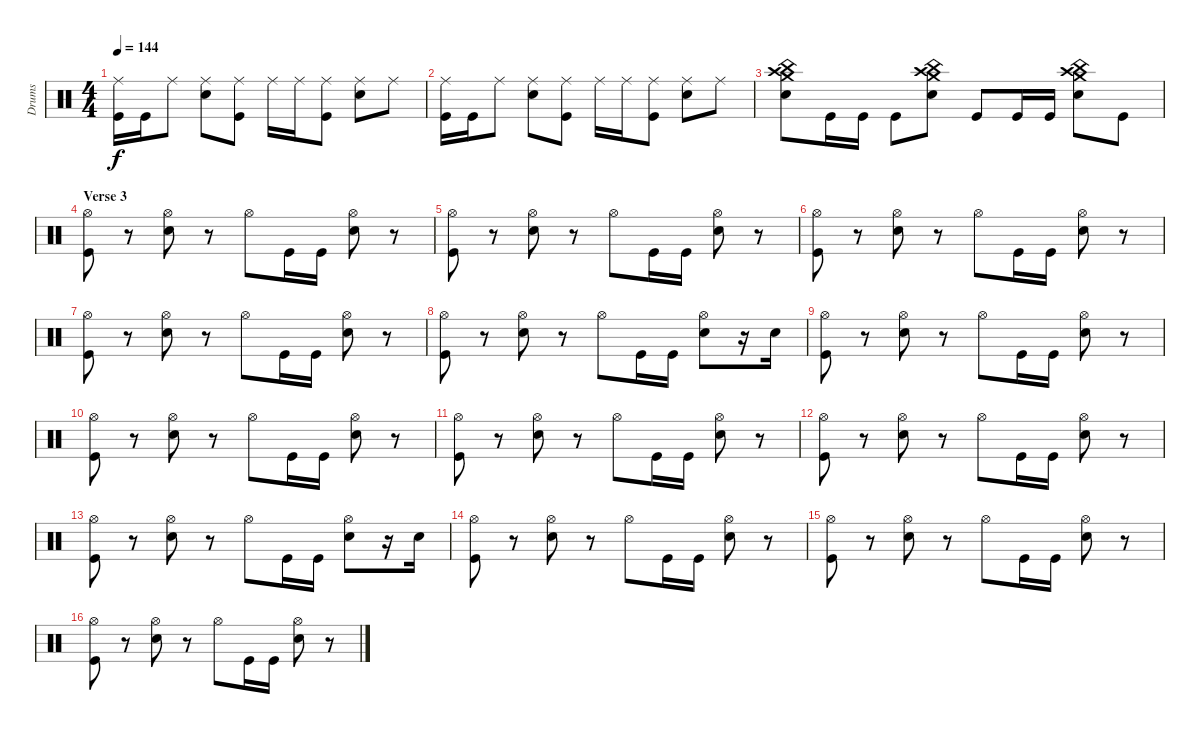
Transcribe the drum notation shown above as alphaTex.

\track ("Drums" "Drums") {instrument percussion}
\staff {score}
\articulation defaults
\ts (4 4)
\tempo 144
\clef neutral
\ks c
("Ride (middle)" "Kick (hit)").16{dy f} "Kick (hit)".16 "Ride (middle)".8 ("Ride (middle)" "Snare (hit) 2").8 ("Ride (middle)" "Kick (hit)").8 "Ride (middle)".16 "Ride (middle)".16 ("Ride (middle)" "Kick (hit)").8 ("Ride (middle)" "Snare (hit) 2").8 "Ride (middle)".8 |
("Ride (middle)" "Kick (hit)").16 "Kick (hit)".16 "Ride (middle)".8 ("Ride (middle)" "Snare (hit) 2").8 ("Ride (middle)" "Kick (hit)").8 "Ride (middle)".16 "Ride (middle)".16 ("Ride (middle)" "Kick (hit)").8 ("Ride (middle)" "Snare (hit) 2").8 "Ride (middle)".8 |
("China (hit)" "Crash medium (hit)" "Crash high (hit)" "Snare (hit) 2").8 "Kick (hit)".16 "Kick (hit)".16 "Kick (hit)".8 ("China (hit)" "Crash medium (hit)" "Crash high (hit)" "Snare (hit) 2").8 "Kick (hit)".8 "Kick (hit)".16 "Kick (hit)".16 ("China (hit)" "Crash medium (hit)" "Crash high (hit)" "Snare (hit) 2").8 "Kick (hit)".8 |
\section ("" "Verse 3")
("Hi-Hat (open)" "Kick (hit)").8 r.8 ("Hi-Hat (open)" "Snare (hit) 2").8 r.8 "Hi-Hat (open)".8 "Kick (hit)".16 "Kick (hit)".16 ("Hi-Hat (open)" "Snare (hit) 2").8 r.8 |
("Hi-Hat (open)" "Kick (hit)").8 r.8 ("Hi-Hat (open)" "Snare (hit) 2").8 r.8 "Hi-Hat (open)".8 "Kick (hit)".16 "Kick (hit)".16 ("Hi-Hat (open)" "Snare (hit) 2").8 r.8 |
("Hi-Hat (open)" "Kick (hit)").8 r.8 ("Hi-Hat (open)" "Snare (hit) 2").8 r.8 "Hi-Hat (open)".8 "Kick (hit)".16 "Kick (hit)".16 ("Hi-Hat (open)" "Snare (hit) 2").8 r.8 |
("Hi-Hat (open)" "Kick (hit)").8 r.8 ("Hi-Hat (open)" "Snare (hit) 2").8 r.8 "Hi-Hat (open)".8 "Kick (hit)".16 "Kick (hit)".16 ("Hi-Hat (open)" "Snare (hit) 2").8 r.8 |
("Hi-Hat (open)" "Kick (hit)").8 r.8 ("Hi-Hat (open)" "Snare (hit) 2").8 r.8 "Hi-Hat (open)".8 "Kick (hit)".16 "Kick (hit)".16 ("Hi-Hat (open)" "Snare (hit) 2").8 r.16 "Snare (hit) 2".16 |
("Hi-Hat (open)" "Kick (hit)").8 r.8 ("Hi-Hat (open)" "Snare (hit) 2").8 r.8 "Hi-Hat (open)".8 "Kick (hit)".16 "Kick (hit)".16 ("Hi-Hat (open)" "Snare (hit) 2").8 r.8 |
("Hi-Hat (open)" "Kick (hit)").8 r.8 ("Hi-Hat (open)" "Snare (hit) 2").8 r.8 "Hi-Hat (open)".8 "Kick (hit)".16 "Kick (hit)".16 ("Hi-Hat (open)" "Snare (hit) 2").8 r.8 |
("Hi-Hat (open)" "Kick (hit)").8 r.8 ("Hi-Hat (open)" "Snare (hit) 2").8 r.8 "Hi-Hat (open)".8 "Kick (hit)".16 "Kick (hit)".16 ("Hi-Hat (open)" "Snare (hit) 2").8 r.8 |
("Hi-Hat (open)" "Kick (hit)").8 r.8 ("Hi-Hat (open)" "Snare (hit) 2").8 r.8 "Hi-Hat (open)".8 "Kick (hit)".16 "Kick (hit)".16 ("Hi-Hat (open)" "Snare (hit) 2").8 r.8 |
("Hi-Hat (open)" "Kick (hit)").8 r.8 ("Hi-Hat (open)" "Snare (hit) 2").8 r.8 "Hi-Hat (open)".8 "Kick (hit)".16 "Kick (hit)".16 ("Hi-Hat (open)" "Snare (hit) 2").8 r.16 "Snare (hit) 2".16 |
("Hi-Hat (open)" "Kick (hit)").8 r.8 ("Hi-Hat (open)" "Snare (hit) 2").8 r.8 "Hi-Hat (open)".8 "Kick (hit)".16 "Kick (hit)".16 ("Hi-Hat (open)" "Snare (hit) 2").8 r.8 |
("Hi-Hat (open)" "Kick (hit)").8 r.8 ("Hi-Hat (open)" "Snare (hit) 2").8 r.8 "Hi-Hat (open)".8 "Kick (hit)".16 "Kick (hit)".16 ("Hi-Hat (open)" "Snare (hit) 2").8 r.8 |
("Hi-Hat (open)" "Kick (hit)").8 r.8 ("Hi-Hat (open)" "Snare (hit) 2").8 r.8 "Hi-Hat (open)".8 "Kick (hit)".16 "Kick (hit)".16 ("Hi-Hat (open)" "Snare (hit) 2").8 r.8
